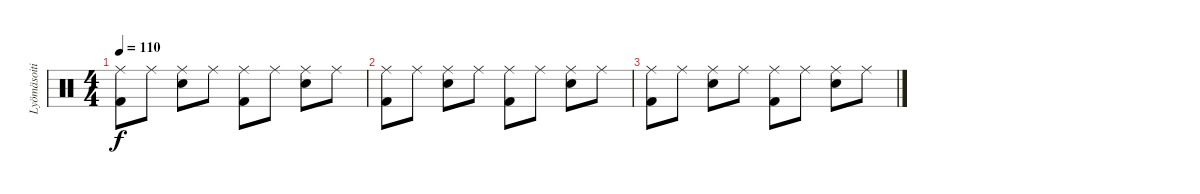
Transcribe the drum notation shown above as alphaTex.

\track ("Lyömäsoitin" "Lyömäsoiti") {instrument percussion}
\staff {score}
\articulation defaults
\ts (4 4)
\tempo 110
\clef neutral
\ks c
("Ride (middle)" "Kick (hit) 2").8{dy f} "Ride (middle)".8 ("Ride (middle)" "Snare (hit) 2").8 "Ride (middle)".8 ("Ride (middle)" "Kick (hit) 2").8 "Ride (middle)".8 ("Ride (middle)" "Snare (hit) 2").8 "Ride (middle)".8 |
("Ride (middle)" "Kick (hit) 2").8 "Ride (middle)".8 ("Ride (middle)" "Snare (hit) 2").8 "Ride (middle)".8 ("Ride (middle)" "Kick (hit) 2").8 "Ride (middle)".8 ("Ride (middle)" "Snare (hit) 2").8 "Ride (middle)".8 |
("Ride (middle)" "Kick (hit) 2").8 "Ride (middle)".8 ("Ride (middle)" "Snare (hit) 2").8 "Ride (middle)".8 ("Ride (middle)" "Kick (hit) 2").8 "Ride (middle)".8 ("Ride (middle)" "Snare (hit) 2").8 "Ride (middle)".8
